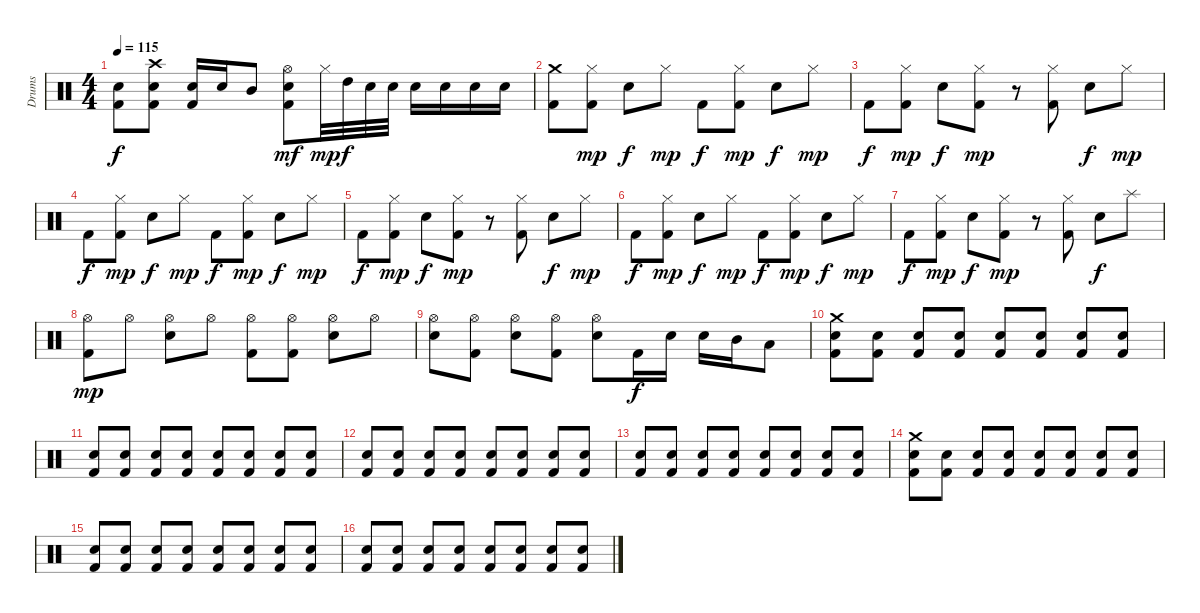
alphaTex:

\track ("Drums" "Drums") {instrument percussion}
\staff {score}
\articulation defaults
\ts (4 4)
\tempo 115
\clef neutral
\ks c
("Snare (hit) 2" "Kick (hit) 2").8{dy f} ("Crash high (hit)" "Snare (hit) 2" "Kick (hit) 2").8 ("Snare (hit) 2" "Kick (hit) 2").16 "Snare (hit) 2".16 "Mid Tom (hit)".8 ("Hi-Hat (open)" "Snare (hit) 2" "Kick (hit) 2").8{dy mf} "Hi-Hat (closed)".32{dy mp} "High Tom (hit)".32{dy f} "Snare (hit) 2".32 "Snare (hit) 2".32 "Snare (hit) 2".16 "Snare (hit) 2".16 "Snare (hit) 2".16 "Snare (hit) 2".16 |
("Crash medium (hit)" "Kick (hit) 2").8 ("Hi-Hat (closed)" "Kick (hit) 2").8{dy mp} "Snare (hit) 2".8{dy f} "Hi-Hat (closed)".8{dy mp} "Kick (hit) 2".8{dy f} ("Hi-Hat (closed)" "Kick (hit) 2").8{dy mp} "Snare (hit) 2".8{dy f} "Hi-Hat (closed)".8{dy mp} |
"Kick (hit) 2".8{dy f} ("Hi-Hat (closed)" "Kick (hit) 2").8{dy mp} "Snare (hit) 2".8{dy f} ("Hi-Hat (closed)" "Kick (hit) 2").8{dy mp} r.8 ("Hi-Hat (closed)" "Kick (hit) 2").8 "Snare (hit) 2".8{dy f} "Hi-Hat (closed)".8{dy mp} |
"Kick (hit) 2".8{dy f} ("Hi-Hat (closed)" "Kick (hit) 2").8{dy mp} "Snare (hit) 2".8{dy f} "Hi-Hat (closed)".8{dy mp} "Kick (hit) 2".8{dy f} ("Hi-Hat (closed)" "Kick (hit) 2").8{dy mp} "Snare (hit) 2".8{dy f} "Hi-Hat (closed)".8{dy mp} |
"Kick (hit) 2".8{dy f} ("Hi-Hat (closed)" "Kick (hit) 2").8{dy mp} "Snare (hit) 2".8{dy f} ("Hi-Hat (closed)" "Kick (hit) 2").8{dy mp} r.8 ("Hi-Hat (closed)" "Kick (hit) 2").8 "Snare (hit) 2".8{dy f} "Hi-Hat (closed)".8{dy mp} |
"Kick (hit) 2".8{dy f} ("Hi-Hat (closed)" "Kick (hit) 2").8{dy mp} "Snare (hit) 2".8{dy f} "Hi-Hat (closed)".8{dy mp} "Kick (hit) 2".8{dy f} ("Hi-Hat (closed)" "Kick (hit) 2").8{dy mp} "Snare (hit) 2".8{dy f} "Hi-Hat (closed)".8{dy mp} |
"Kick (hit) 2".8{dy f} ("Hi-Hat (closed)" "Kick (hit) 2").8{dy mp} "Snare (hit) 2".8{dy f} ("Hi-Hat (closed)" "Kick (hit) 2").8{dy mp} r.8 ("Hi-Hat (closed)" "Kick (hit) 2").8 "Snare (hit) 2".8{dy f} "Splash (hit)".8 |
("Hi-Hat (open)" "Kick (hit) 2").8{dy mp} "Hi-Hat (open)".8 ("Hi-Hat (open)" "Snare (hit) 2").8 "Hi-Hat (open)".8 ("Hi-Hat (open)" "Kick (hit) 2").8 ("Hi-Hat (open)" "Kick (hit) 2").8 ("Hi-Hat (open)" "Snare (hit) 2").8 "Hi-Hat (open)".8 |
("Hi-Hat (open)" "Snare (hit) 2").8 ("Hi-Hat (open)" "Kick (hit) 2").8 ("Hi-Hat (open)" "Snare (hit) 2").8 ("Hi-Hat (open)" "Kick (hit) 2").8 ("Hi-Hat (open)" "Snare (hit) 2").8 "Kick (hit) 2".16{dy f} "Snare (hit) 2".16 "Snare (hit) 2".16 "Mid Tom (hit)".16 "Low Tom (hit)".8 |
("Crash medium (hit)" "Snare (hit) 2" "Kick (hit) 2").8 ("Snare (hit) 2" "Kick (hit) 2").8 ("Snare (hit) 2" "Kick (hit) 2").8 ("Snare (hit) 2" "Kick (hit) 2").8 ("Snare (hit) 2" "Kick (hit) 2").8 ("Snare (hit) 2" "Kick (hit) 2").8 ("Snare (hit) 2" "Kick (hit) 2").8 ("Snare (hit) 2" "Kick (hit) 2").8 |
("Snare (hit) 2" "Kick (hit) 2").8 ("Snare (hit) 2" "Kick (hit) 2").8 ("Snare (hit) 2" "Kick (hit) 2").8 ("Snare (hit) 2" "Kick (hit) 2").8 ("Snare (hit) 2" "Kick (hit) 2").8 ("Snare (hit) 2" "Kick (hit) 2").8 ("Snare (hit) 2" "Kick (hit) 2").8 ("Snare (hit) 2" "Kick (hit) 2").8 |
("Snare (hit) 2" "Kick (hit) 2").8 ("Snare (hit) 2" "Kick (hit) 2").8 ("Snare (hit) 2" "Kick (hit) 2").8 ("Snare (hit) 2" "Kick (hit) 2").8 ("Snare (hit) 2" "Kick (hit) 2").8 ("Snare (hit) 2" "Kick (hit) 2").8 ("Snare (hit) 2" "Kick (hit) 2").8 ("Snare (hit) 2" "Kick (hit) 2").8 |
("Snare (hit) 2" "Kick (hit) 2").8 ("Snare (hit) 2" "Kick (hit) 2").8 ("Snare (hit) 2" "Kick (hit) 2").8 ("Snare (hit) 2" "Kick (hit) 2").8 ("Snare (hit) 2" "Kick (hit) 2").8 ("Snare (hit) 2" "Kick (hit) 2").8 ("Snare (hit) 2" "Kick (hit) 2").8 ("Snare (hit) 2" "Kick (hit) 2").8 |
("Crash medium (hit)" "Snare (hit) 2" "Kick (hit) 2").8 ("Snare (hit) 2" "Kick (hit) 2").8 ("Snare (hit) 2" "Kick (hit) 2").8 ("Snare (hit) 2" "Kick (hit) 2").8 ("Snare (hit) 2" "Kick (hit) 2").8 ("Snare (hit) 2" "Kick (hit) 2").8 ("Snare (hit) 2" "Kick (hit) 2").8 ("Snare (hit) 2" "Kick (hit) 2").8 |
("Snare (hit) 2" "Kick (hit) 2").8 ("Snare (hit) 2" "Kick (hit) 2").8 ("Snare (hit) 2" "Kick (hit) 2").8 ("Snare (hit) 2" "Kick (hit) 2").8 ("Snare (hit) 2" "Kick (hit) 2").8 ("Snare (hit) 2" "Kick (hit) 2").8 ("Snare (hit) 2" "Kick (hit) 2").8 ("Snare (hit) 2" "Kick (hit) 2").8 |
("Snare (hit) 2" "Kick (hit) 2").8 ("Snare (hit) 2" "Kick (hit) 2").8 ("Snare (hit) 2" "Kick (hit) 2").8 ("Snare (hit) 2" "Kick (hit) 2").8 ("Snare (hit) 2" "Kick (hit) 2").8 ("Snare (hit) 2" "Kick (hit) 2").8 ("Snare (hit) 2" "Kick (hit) 2").8 ("Snare (hit) 2" "Kick (hit) 2").8
